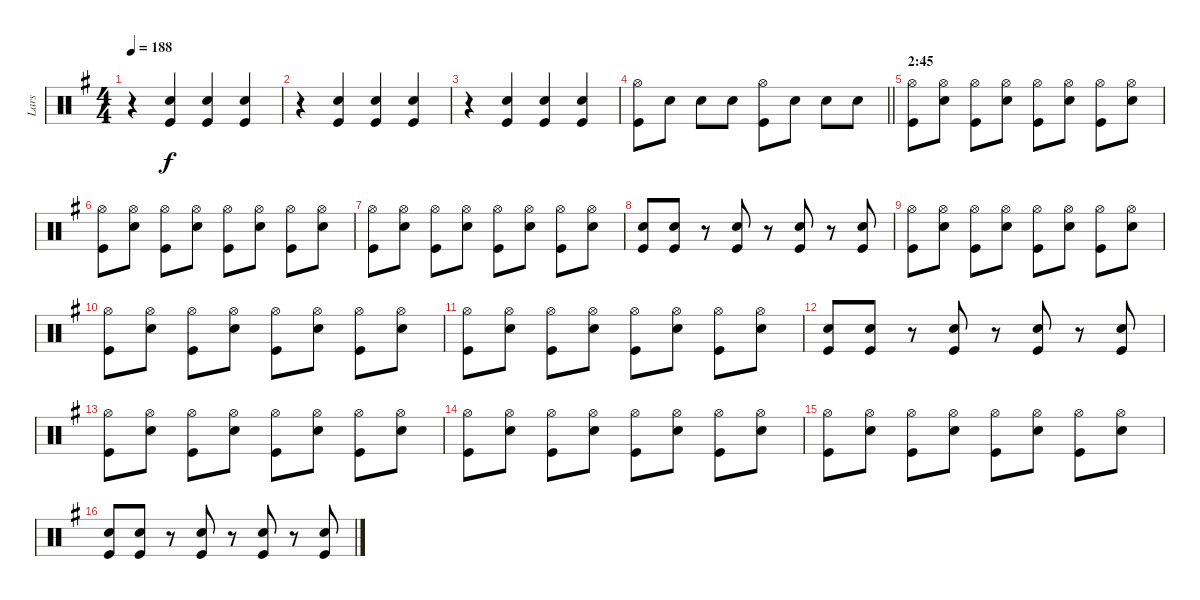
\track ("Lars" "Lars") {instrument percussion}
\staff {score}
\articulation defaults
\ts (4 4)
\tempo 188
\clef neutral
\ks eminor
r.4{dy f} ("Snare (hit) 2" "Kick (hit)").4 ("Snare (hit) 2" "Kick (hit)").4 ("Snare (hit) 2" "Kick (hit)").4 |
r.4 ("Snare (hit) 2" "Kick (hit)").4 ("Snare (hit) 2" "Kick (hit)").4 ("Snare (hit) 2" "Kick (hit)").4 |
r.4 ("Snare (hit) 2" "Kick (hit)").4 ("Snare (hit) 2" "Kick (hit)").4 ("Snare (hit) 2" "Kick (hit)").4 |
\barLineRight lightlight
("Hi-Hat (open)" "Kick (hit)").8 "Snare (hit) 2".8 "Snare (hit) 2".8 "Snare (hit) 2".8 ("Hi-Hat (open)" "Kick (hit)").8 "Snare (hit) 2".8 "Snare (hit) 2".8 "Snare (hit) 2".8 |
\section ("" "2:45")
("Hi-Hat (open)" "Kick (hit)").8 ("Hi-Hat (open)" "Snare (hit) 2").8 ("Hi-Hat (open)" "Kick (hit)").8 ("Hi-Hat (open)" "Snare (hit) 2").8 ("Hi-Hat (open)" "Kick (hit)").8 ("Hi-Hat (open)" "Snare (hit) 2").8 ("Hi-Hat (open)" "Kick (hit)").8 ("Hi-Hat (open)" "Snare (hit) 2").8 |
("Hi-Hat (open)" "Kick (hit)").8 ("Hi-Hat (open)" "Snare (hit) 2").8 ("Hi-Hat (open)" "Kick (hit)").8 ("Hi-Hat (open)" "Snare (hit) 2").8 ("Hi-Hat (open)" "Kick (hit)").8 ("Hi-Hat (open)" "Snare (hit) 2").8 ("Hi-Hat (open)" "Kick (hit)").8 ("Snare (hit) 2" "Hi-Hat (open)").8 |
("Hi-Hat (open)" "Kick (hit)").8 ("Hi-Hat (open)" "Snare (hit) 2").8 ("Hi-Hat (open)" "Kick (hit)").8 ("Hi-Hat (open)" "Snare (hit) 2").8 ("Hi-Hat (open)" "Kick (hit)").8 ("Hi-Hat (open)" "Snare (hit) 2").8 ("Hi-Hat (open)" "Kick (hit)").8 ("Snare (hit) 2" "Hi-Hat (open)").8 |
("Kick (hit)" "Snare (hit) 2").8 ("Snare (hit) 2" "Kick (hit)").8 r.8 ("Kick (hit)" "Snare (hit) 2").8 r.8 ("Kick (hit)" "Snare (hit) 2").8 r.8 ("Kick (hit)" "Snare (hit) 2").8 |
("Hi-Hat (open)" "Kick (hit)").8 ("Hi-Hat (open)" "Snare (hit) 2").8 ("Hi-Hat (open)" "Kick (hit)").8 ("Hi-Hat (open)" "Snare (hit) 2").8 ("Hi-Hat (open)" "Kick (hit)").8 ("Hi-Hat (open)" "Snare (hit) 2").8 ("Hi-Hat (open)" "Kick (hit)").8 ("Hi-Hat (open)" "Snare (hit) 2").8 |
("Hi-Hat (open)" "Kick (hit)").8 ("Hi-Hat (open)" "Snare (hit) 2").8 ("Hi-Hat (open)" "Kick (hit)").8 ("Hi-Hat (open)" "Snare (hit) 2").8 ("Hi-Hat (open)" "Kick (hit)").8 ("Hi-Hat (open)" "Snare (hit) 2").8 ("Hi-Hat (open)" "Kick (hit)").8 ("Snare (hit) 2" "Hi-Hat (open)").8 |
("Hi-Hat (open)" "Kick (hit)").8 ("Hi-Hat (open)" "Snare (hit) 2").8 ("Hi-Hat (open)" "Kick (hit)").8 ("Hi-Hat (open)" "Snare (hit) 2").8 ("Hi-Hat (open)" "Kick (hit)").8 ("Hi-Hat (open)" "Snare (hit) 2").8 ("Hi-Hat (open)" "Kick (hit)").8 ("Snare (hit) 2" "Hi-Hat (open)").8 |
("Kick (hit)" "Snare (hit) 2").8 ("Snare (hit) 2" "Kick (hit)").8 r.8 ("Kick (hit)" "Snare (hit) 2").8 r.8 ("Kick (hit)" "Snare (hit) 2").8 r.8 ("Kick (hit)" "Snare (hit) 2").8 |
("Hi-Hat (open)" "Kick (hit)").8 ("Hi-Hat (open)" "Snare (hit) 2").8 ("Hi-Hat (open)" "Kick (hit)").8 ("Hi-Hat (open)" "Snare (hit) 2").8 ("Hi-Hat (open)" "Kick (hit)").8 ("Hi-Hat (open)" "Snare (hit) 2").8 ("Hi-Hat (open)" "Kick (hit)").8 ("Hi-Hat (open)" "Snare (hit) 2").8 |
("Hi-Hat (open)" "Kick (hit)").8 ("Hi-Hat (open)" "Snare (hit) 2").8 ("Hi-Hat (open)" "Kick (hit)").8 ("Hi-Hat (open)" "Snare (hit) 2").8 ("Hi-Hat (open)" "Kick (hit)").8 ("Hi-Hat (open)" "Snare (hit) 2").8 ("Hi-Hat (open)" "Kick (hit)").8 ("Snare (hit) 2" "Hi-Hat (open)").8 |
("Hi-Hat (open)" "Kick (hit)").8 ("Hi-Hat (open)" "Snare (hit) 2").8 ("Hi-Hat (open)" "Kick (hit)").8 ("Hi-Hat (open)" "Snare (hit) 2").8 ("Hi-Hat (open)" "Kick (hit)").8 ("Hi-Hat (open)" "Snare (hit) 2").8 ("Hi-Hat (open)" "Kick (hit)").8 ("Snare (hit) 2" "Hi-Hat (open)").8 |
("Kick (hit)" "Snare (hit) 2").8 ("Snare (hit) 2" "Kick (hit)").8 r.8 ("Kick (hit)" "Snare (hit) 2").8 r.8 ("Kick (hit)" "Snare (hit) 2").8 r.8 ("Kick (hit)" "Snare (hit) 2").8
